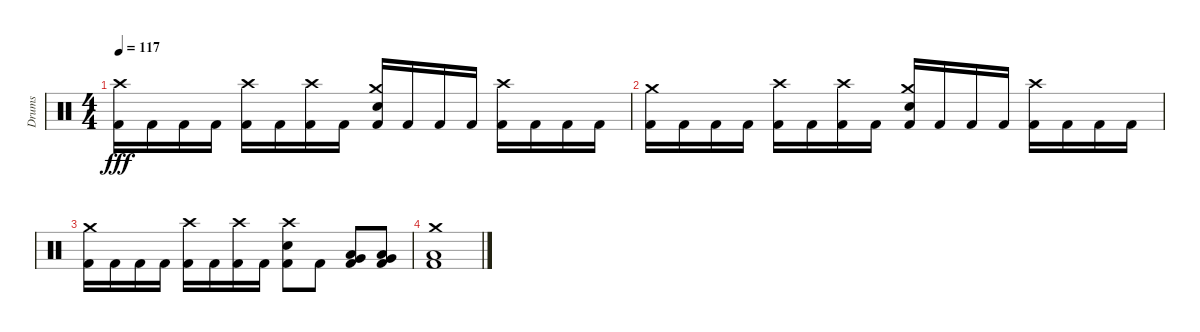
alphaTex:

\track ("Drums" "Drums") {instrument percussion}
\staff {score}
\articulation defaults
\ts (4 4)
\tempo 117
\clef neutral
\ks c
("Crash high (hit)" "Kick (hit) 2").16{dy fff} "Kick (hit) 2".16 "Kick (hit) 2".16 "Kick (hit) 2".16 ("Crash high (hit)" "Kick (hit) 2").16 "Kick (hit) 2".16 ("Crash high (hit)" "Kick (hit) 2").16 "Kick (hit) 2".16 ("Crash medium (hit)" "Electric Snare (hit)" "Kick (hit) 2").16 "Kick (hit) 2".16 "Kick (hit) 2".16 "Kick (hit) 2".16 ("Crash high (hit)" "Kick (hit) 2").16 "Kick (hit) 2".16 "Kick (hit) 2".16 "Kick (hit) 2".16 |
("Crash medium (hit)" "Kick (hit) 2").16 "Kick (hit) 2".16 "Kick (hit) 2".16 "Kick (hit) 2".16 ("Crash high (hit)" "Kick (hit) 2").16 "Kick (hit) 2".16 ("Crash high (hit)" "Kick (hit) 2").16 "Kick (hit) 2".16 ("Crash medium (hit)" "Electric Snare (hit)" "Kick (hit) 2").16 "Kick (hit) 2".16 "Kick (hit) 2".16 "Kick (hit) 2".16 ("Crash high (hit)" "Kick (hit) 2").16 "Kick (hit) 2".16 "Kick (hit) 2".16 "Kick (hit) 2".16 |
("Crash medium (hit)" "Kick (hit) 2").16 "Kick (hit) 2".16 "Kick (hit) 2".16 "Kick (hit) 2".16 ("Crash high (hit)" "Kick (hit) 2").16 "Kick (hit) 2".16 ("Crash high (hit)" "Kick (hit) 2").16 "Kick (hit) 2".16 ("Crash high (hit)" "Electric Snare (hit)" "Kick (hit) 2").8 "Kick (hit) 2".8 ("Low Tom (hit)" "Very Low Tom (hit)" "Kick (hit) 2").8 ("Very Low Tom (hit)" "Low Floor Tom (hit)" "Kick (hit) 2").8 |
("Crash medium (hit)" "Low Floor Tom (hit)" "Kick (hit) 2").1
